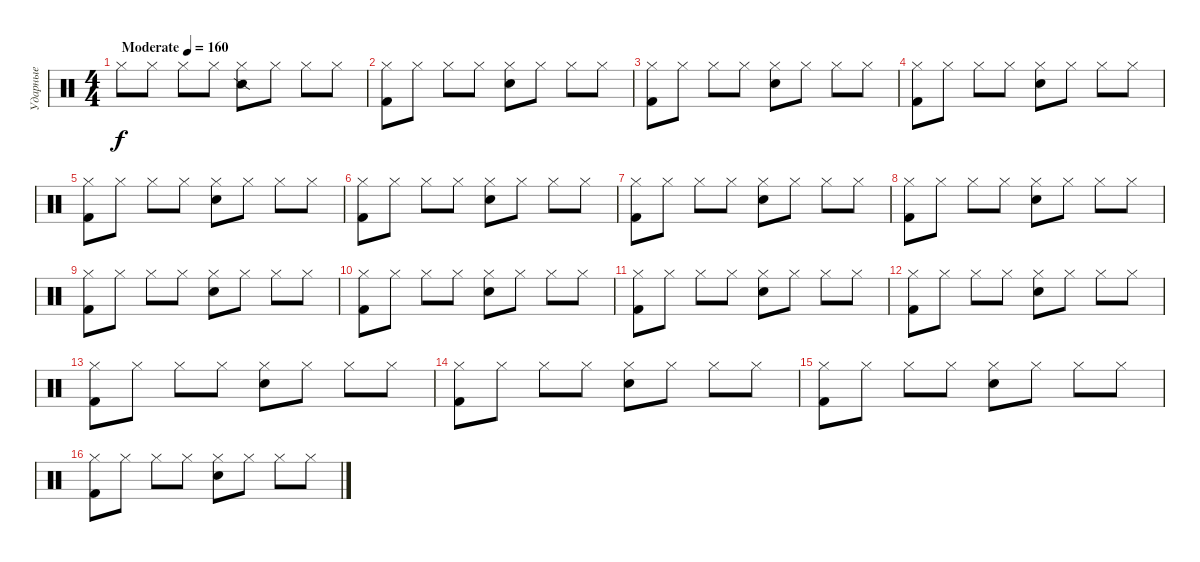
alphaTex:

\track ("Ударные" "Ударные") {instrument percussion}
\staff {score}
\articulation defaults
\ts (4 4)
\tempo (160 "Moderate")
\clef neutral
\ks c "Hi-Hat (closed)".8{dy f} "Hi-Hat (closed)".8 "Hi-Hat (closed)".8 "Hi-Hat (closed)".8
("Snare (side stick) 2" "Hi-Hat (closed)").8 "Hi-Hat (closed)".8 "Hi-Hat (closed)".8 "Hi-Hat (closed)".8 |
("Kick (hit) 2" "Hi-Hat (closed)").8 "Hi-Hat (closed)".8 "Hi-Hat (closed)".8 "Hi-Hat (closed)".8 ("Snare (hit) 2" "Hi-Hat (closed)").8 "Hi-Hat (closed)".8 "Hi-Hat (closed)".8 "Hi-Hat (closed)".8 |
("Kick (hit) 2" "Hi-Hat (closed)").8 "Hi-Hat (closed)".8 "Hi-Hat (closed)".8 "Hi-Hat (closed)".8 ("Snare (hit) 2" "Hi-Hat (closed)").8 "Hi-Hat (closed)".8 "Hi-Hat (closed)".8 "Hi-Hat (closed)".8 |
("Kick (hit) 2" "Hi-Hat (closed)").8 "Hi-Hat (closed)".8 "Hi-Hat (closed)".8 "Hi-Hat (closed)".8 ("Snare (hit) 2" "Hi-Hat (closed)").8 "Hi-Hat (closed)".8 "Hi-Hat (closed)".8 "Hi-Hat (closed)".8 |
("Kick (hit) 2" "Hi-Hat (closed)").8 "Hi-Hat (closed)".8 "Hi-Hat (closed)".8 "Hi-Hat (closed)".8 ("Snare (hit) 2" "Hi-Hat (closed)").8 "Hi-Hat (closed)".8 "Hi-Hat (closed)".8 "Hi-Hat (closed)".8 |
("Kick (hit) 2" "Hi-Hat (closed)").8 "Hi-Hat (closed)".8 "Hi-Hat (closed)".8 "Hi-Hat (closed)".8 ("Snare (hit) 2" "Hi-Hat (closed)").8 "Hi-Hat (closed)".8 "Hi-Hat (closed)".8 "Hi-Hat (closed)".8 |
("Kick (hit) 2" "Hi-Hat (closed)").8 "Hi-Hat (closed)".8 "Hi-Hat (closed)".8 "Hi-Hat (closed)".8 ("Snare (hit) 2" "Hi-Hat (closed)").8 "Hi-Hat (closed)".8 "Hi-Hat (closed)".8 "Hi-Hat (closed)".8 |
("Kick (hit) 2" "Hi-Hat (closed)").8 "Hi-Hat (closed)".8 "Hi-Hat (closed)".8 "Hi-Hat (closed)".8 ("Snare (hit) 2" "Hi-Hat (closed)").8 "Hi-Hat (closed)".8 "Hi-Hat (closed)".8 "Hi-Hat (closed)".8 |
("Kick (hit) 2" "Hi-Hat (closed)").8 "Hi-Hat (closed)".8 "Hi-Hat (closed)".8 "Hi-Hat (closed)".8 ("Snare (hit) 2" "Hi-Hat (closed)").8 "Hi-Hat (closed)".8 "Hi-Hat (closed)".8 "Hi-Hat (closed)".8 |
("Kick (hit) 2" "Hi-Hat (closed)").8 "Hi-Hat (closed)".8 "Hi-Hat (closed)".8 "Hi-Hat (closed)".8 ("Snare (hit) 2" "Hi-Hat (closed)").8 "Hi-Hat (closed)".8 "Hi-Hat (closed)".8 "Hi-Hat (closed)".8 |
("Kick (hit) 2" "Hi-Hat (closed)").8 "Hi-Hat (closed)".8 "Hi-Hat (closed)".8 "Hi-Hat (closed)".8 ("Snare (hit) 2" "Hi-Hat (closed)").8 "Hi-Hat (closed)".8 "Hi-Hat (closed)".8 "Hi-Hat (closed)".8 |
("Kick (hit) 2" "Hi-Hat (closed)").8 "Hi-Hat (closed)".8 "Hi-Hat (closed)".8 "Hi-Hat (closed)".8 ("Snare (hit) 2" "Hi-Hat (closed)").8 "Hi-Hat (closed)".8 "Hi-Hat (closed)".8 "Hi-Hat (closed)".8 |
("Kick (hit) 2" "Hi-Hat (closed)").8 "Hi-Hat (closed)".8 "Hi-Hat (closed)".8 "Hi-Hat (closed)".8 ("Snare (hit) 2" "Hi-Hat (closed)").8 "Hi-Hat (closed)".8 "Hi-Hat (closed)".8 "Hi-Hat (closed)".8 |
("Kick (hit) 2" "Hi-Hat (closed)").8 "Hi-Hat (closed)".8 "Hi-Hat (closed)".8 "Hi-Hat (closed)".8 ("Snare (hit) 2" "Hi-Hat (closed)").8 "Hi-Hat (closed)".8 "Hi-Hat (closed)".8 "Hi-Hat (closed)".8 |
("Kick (hit) 2" "Hi-Hat (closed)").8 "Hi-Hat (closed)".8 "Hi-Hat (closed)".8 "Hi-Hat (closed)".8 ("Snare (hit) 2" "Hi-Hat (closed)").8 "Hi-Hat (closed)".8 "Hi-Hat (closed)".8 "Hi-Hat (closed)".8 |
("Kick (hit) 2" "Hi-Hat (closed)").8 "Hi-Hat (closed)".8 "Hi-Hat (closed)".8 "Hi-Hat (closed)".8 ("Snare (hit) 2" "Hi-Hat (closed)").8 "Hi-Hat (closed)".8 "Hi-Hat (closed)".8 "Hi-Hat (closed)".8
